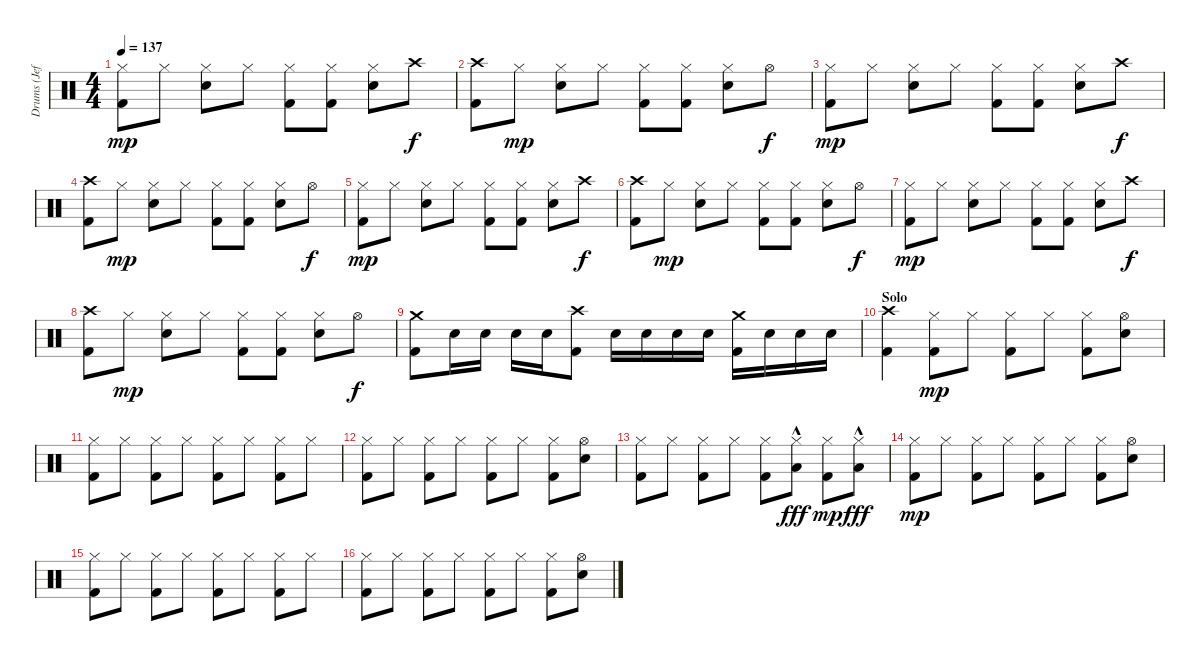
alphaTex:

\track ("Drums (Jeff)" "Drums (Jef") {instrument percussion}
\staff {score}
\articulation defaults
\ts (4 4)
\tempo 137
\clef neutral
\ks c
("Hi-Hat (closed)" "Kick (hit) 2").8{dy mp} "Hi-Hat (closed)".8 ("Hi-Hat (closed)" "Electric Snare (hit)").8 "Hi-Hat (closed)".8 ("Hi-Hat (closed)" "Kick (hit) 2").8 ("Hi-Hat (closed)" "Kick (hit) 2").8 ("Hi-Hat (closed)" "Electric Snare (hit)").8 "Crash high (hit)".8{dy f} |
("Crash high (hit)" "Kick (hit) 2").8 "Hi-Hat (closed)".8{dy mp} ("Hi-Hat (closed)" "Electric Snare (hit)").8 "Hi-Hat (closed)".8 ("Hi-Hat (closed)" "Kick (hit) 2").8 ("Hi-Hat (closed)" "Kick (hit) 2").8 ("Hi-Hat (closed)" "Electric Snare (hit)").8 "Hi-Hat (open)".8{dy f} |
("Hi-Hat (closed)" "Kick (hit) 2").8{dy mp} "Hi-Hat (closed)".8 ("Hi-Hat (closed)" "Electric Snare (hit)").8 "Hi-Hat (closed)".8 ("Hi-Hat (closed)" "Kick (hit) 2").8 ("Hi-Hat (closed)" "Kick (hit) 2").8 ("Hi-Hat (closed)" "Electric Snare (hit)").8 "Crash high (hit)".8{dy f} |
("Crash high (hit)" "Kick (hit) 2").8 "Hi-Hat (closed)".8{dy mp} ("Hi-Hat (closed)" "Electric Snare (hit)").8 "Hi-Hat (closed)".8 ("Hi-Hat (closed)" "Kick (hit) 2").8 ("Hi-Hat (closed)" "Kick (hit) 2").8 ("Hi-Hat (closed)" "Electric Snare (hit)").8 "Hi-Hat (open)".8{dy f} |
("Hi-Hat (closed)" "Kick (hit) 2").8{dy mp} "Hi-Hat (closed)".8 ("Hi-Hat (closed)" "Electric Snare (hit)").8 "Hi-Hat (closed)".8 ("Hi-Hat (closed)" "Kick (hit) 2").8 ("Hi-Hat (closed)" "Kick (hit) 2").8 ("Hi-Hat (closed)" "Electric Snare (hit)").8 "Crash high (hit)".8{dy f} |
("Crash high (hit)" "Kick (hit) 2").8 "Hi-Hat (closed)".8{dy mp} ("Hi-Hat (closed)" "Electric Snare (hit)").8 "Hi-Hat (closed)".8 ("Hi-Hat (closed)" "Kick (hit) 2").8 ("Hi-Hat (closed)" "Kick (hit) 2").8 ("Hi-Hat (closed)" "Electric Snare (hit)").8 "Hi-Hat (open)".8{dy f} |
("Hi-Hat (closed)" "Kick (hit) 2").8{dy mp} "Hi-Hat (closed)".8 ("Hi-Hat (closed)" "Electric Snare (hit)").8 "Hi-Hat (closed)".8 ("Hi-Hat (closed)" "Kick (hit) 2").8 ("Hi-Hat (closed)" "Kick (hit) 2").8 ("Hi-Hat (closed)" "Electric Snare (hit)").8 "Crash high (hit)".8{dy f} |
("Crash high (hit)" "Kick (hit) 2").8 "Hi-Hat (closed)".8{dy mp} ("Hi-Hat (closed)" "Electric Snare (hit)").8 "Hi-Hat (closed)".8 ("Hi-Hat (closed)" "Kick (hit) 2").8 ("Hi-Hat (closed)" "Kick (hit) 2").8 ("Hi-Hat (closed)" "Electric Snare (hit)").8 "Hi-Hat (open)".8{dy f} |
("Crash medium (hit)" "Kick (hit) 2").8 "Electric Snare (hit)".16 "Electric Snare (hit)".16 "Electric Snare (hit)".16 "Electric Snare (hit)".16 ("Crash high (hit)" "Kick (hit) 2").8 "Electric Snare (hit)".16 "Electric Snare (hit)".16 "Electric Snare (hit)".16 "Electric Snare (hit)".16 ("Crash medium (hit)" "Kick (hit) 2").16 "Electric Snare (hit)".16 "Electric Snare (hit)".16 "Electric Snare (hit)".16 |
\section ("" "Solo")
("Crash high (hit)" "Kick (hit) 2").4 ("Hi-Hat (closed)" "Kick (hit) 2").8{dy mp} "Hi-Hat (closed)".8 ("Hi-Hat (closed)" "Kick (hit) 2").8 "Hi-Hat (closed)".8 ("Hi-Hat (closed)" "Kick (hit) 2").8 ("Hi-Hat (open)" "Electric Snare (hit)").8 |
("Hi-Hat (closed)" "Kick (hit) 2").8 "Hi-Hat (closed)".8 ("Hi-Hat (closed)" "Kick (hit) 2").8 "Hi-Hat (closed)".8 ("Hi-Hat (closed)" "Kick (hit) 2").8 "Hi-Hat (closed)".8 ("Hi-Hat (closed)" "Kick (hit) 2").8 "Hi-Hat (closed)".8 |
("Hi-Hat (closed)" "Kick (hit) 2").8 "Hi-Hat (closed)".8 ("Hi-Hat (closed)" "Kick (hit) 2").8 "Hi-Hat (closed)".8 ("Hi-Hat (closed)" "Kick (hit) 2").8 "Hi-Hat (closed)".8 ("Hi-Hat (closed)" "Kick (hit) 2").8 ("Hi-Hat (open)" "Electric Snare (hit)").8 |
("Hi-Hat (closed)" "Kick (hit) 2").8 "Hi-Hat (closed)".8 ("Hi-Hat (closed)" "Kick (hit) 2").8 "Hi-Hat (closed)".8 ("Hi-Hat (closed)" "Kick (hit) 2").8 ("Hi-Hat (closed)" "Low Tom (hit)"{hac}).8{dy fff} ("Hi-Hat (closed)" "Kick (hit) 2").8{dy mp} ("Hi-Hat (closed)" "Low Tom (hit)"{hac}).8{dy fff} |
("Hi-Hat (closed)" "Kick (hit) 2").8{dy mp} "Hi-Hat (closed)".8 ("Hi-Hat (closed)" "Kick (hit) 2").8 "Hi-Hat (closed)".8 ("Hi-Hat (closed)" "Kick (hit) 2").8 "Hi-Hat (closed)".8 ("Hi-Hat (closed)" "Kick (hit) 2").8 ("Hi-Hat (open)" "Electric Snare (hit)").8 |
("Hi-Hat (closed)" "Kick (hit) 2").8 "Hi-Hat (closed)".8 ("Hi-Hat (closed)" "Kick (hit) 2").8 "Hi-Hat (closed)".8 ("Hi-Hat (closed)" "Kick (hit) 2").8 "Hi-Hat (closed)".8 ("Hi-Hat (closed)" "Kick (hit) 2").8 "Hi-Hat (closed)".8 |
("Hi-Hat (closed)" "Kick (hit) 2").8 "Hi-Hat (closed)".8 ("Hi-Hat (closed)" "Kick (hit) 2").8 "Hi-Hat (closed)".8 ("Hi-Hat (closed)" "Kick (hit) 2").8 "Hi-Hat (closed)".8 ("Hi-Hat (closed)" "Kick (hit) 2").8 ("Hi-Hat (open)" "Electric Snare (hit)").8
